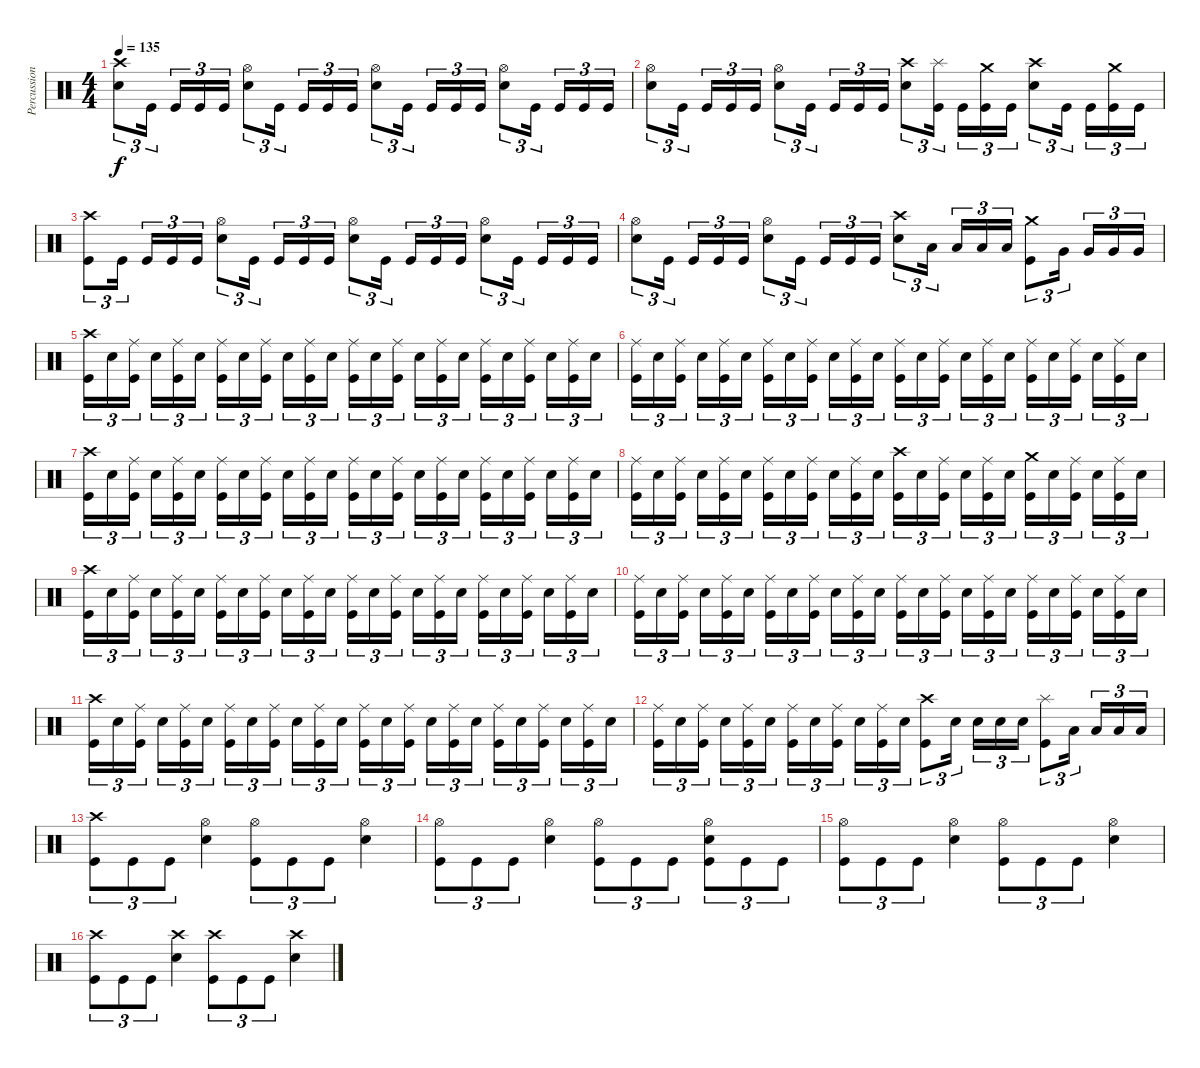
\track ("Percussions" "Percussion") {instrument percussion}
\staff {score}
\articulation defaults
\ts (4 4)
\tempo 135
\clef neutral
\ks c
("Crash high (hit)" "Electric Snare (hit)").8{tu (3 2) dy f} "Kick (hit)".16{tu (3 2) beam splitsecondary} "Kick (hit)".16{tu (3 2)} "Kick (hit)".16{tu (3 2)} "Kick (hit)".16{tu (3 2)} ("Hi-Hat (open)" "Electric Snare (hit)").8{tu (3 2)} "Kick (hit)".16{tu (3 2) beam splitsecondary} "Kick (hit)".16{tu (3 2)} "Kick (hit)".16{tu (3 2)} "Kick (hit)".16{tu (3 2)} ("Hi-Hat (open)" "Electric Snare (hit)").8{tu (3 2)} "Kick (hit)".16{tu (3 2) beam splitsecondary} "Kick (hit)".16{tu (3 2)} "Kick (hit)".16{tu (3 2)} "Kick (hit)".16{tu (3 2)} ("Hi-Hat (open)" "Electric Snare (hit)").8{tu (3 2)} "Kick (hit)".16{tu (3 2) beam splitsecondary} "Kick (hit)".16{tu (3 2)} "Kick (hit)".16{tu (3 2)} "Kick (hit)".16{tu (3 2)} |
("Hi-Hat (open)" "Electric Snare (hit)").8{tu (3 2)} "Kick (hit)".16{tu (3 2) beam splitsecondary} "Kick (hit)".16{tu (3 2)} "Kick (hit)".16{tu (3 2)} "Kick (hit)".16{tu (3 2)} ("Hi-Hat (open)" "Electric Snare (hit)").8{tu (3 2)} "Kick (hit)".16{tu (3 2) beam splitsecondary} "Kick (hit)".16{tu (3 2)} "Kick (hit)".16{tu (3 2)} "Kick (hit)".16{tu (3 2)} ("Crash high (hit)" "Electric Snare (hit)").8{tu (3 2)} ("Splash (hit)" "Kick (hit)").16{tu (3 2) beam splitsecondary} "Kick (hit)".16{tu (3 2)} ("Crash medium (hit)" "Kick (hit)").16{tu (3 2)} "Kick (hit)".16{tu (3 2)} ("Crash high (hit)" "Electric Snare (hit)").8{tu (3 2)} "Kick (hit)".16{tu (3 2) beam splitsecondary} "Kick (hit)".16{tu (3 2)} ("Crash medium (hit)" "Kick (hit)").16{tu (3 2)} "Kick (hit)".16{tu (3 2)} |
("Crash high (hit)" "Kick (hit)").8{tu (3 2)} "Kick (hit)".16{tu (3 2) beam splitsecondary} "Kick (hit)".16{tu (3 2)} "Kick (hit)".16{tu (3 2)} "Kick (hit)".16{tu (3 2)} ("Hi-Hat (open)" "Electric Snare (hit)").8{tu (3 2)} "Kick (hit)".16{tu (3 2) beam splitsecondary} "Kick (hit)".16{tu (3 2)} "Kick (hit)".16{tu (3 2)} "Kick (hit)".16{tu (3 2)} ("Hi-Hat (open)" "Electric Snare (hit)").8{tu (3 2)} "Kick (hit)".16{tu (3 2) beam splitsecondary} "Kick (hit)".16{tu (3 2)} "Kick (hit)".16{tu (3 2)} "Kick (hit)".16{tu (3 2)} ("Hi-Hat (open)" "Electric Snare (hit)").8{tu (3 2)} "Kick (hit)".16{tu (3 2) beam splitsecondary} "Kick (hit)".16{tu (3 2)} "Kick (hit)".16{tu (3 2)} "Kick (hit)".16{tu (3 2)} |
("Hi-Hat (open)" "Electric Snare (hit)").8{tu (3 2)} "Kick (hit)".16{tu (3 2) beam splitsecondary} "Kick (hit)".16{tu (3 2)} "Kick (hit)".16{tu (3 2)} "Kick (hit)".16{tu (3 2)} ("Hi-Hat (open)" "Electric Snare (hit)").8{tu (3 2)} "Kick (hit)".16{tu (3 2) beam splitsecondary} "Kick (hit)".16{tu (3 2)} "Kick (hit)".16{tu (3 2)} "Kick (hit)".16{tu (3 2)} ("Crash high (hit)" "Electric Snare (hit)").8{tu (3 2)} "Low Tom (hit)".16{tu (3 2) beam splitsecondary} "Low Tom (hit)".16{tu (3 2)} "Low Tom (hit)".16{tu (3 2)} "Low Tom (hit)".16{tu (3 2)} ("Crash medium (hit)" "Kick (hit)").8{tu (3 2)} "Very Low Tom (hit)".16{tu (3 2) beam splitsecondary} "Very Low Tom (hit)".16{tu (3 2)} "Very Low Tom (hit)".16{tu (3 2)} "Very Low Tom (hit)".16{tu (3 2)} |
("Crash high (hit)" "Kick (hit)").16{tu (3 2)} "Electric Snare (hit)".16{tu (3 2)} ("Ride (middle)" "Kick (hit)").16{tu (3 2) beam splitsecondary} "Electric Snare (hit)".16{tu (3 2)} ("Ride (middle)" "Kick (hit)").16{tu (3 2)} "Electric Snare (hit)".16{tu (3 2)} ("Ride (middle)" "Kick (hit)").16{tu (3 2)} "Electric Snare (hit)".16{tu (3 2)} ("Ride (middle)" "Kick (hit)").16{tu (3 2) beam splitsecondary} "Electric Snare (hit)".16{tu (3 2)} ("Ride (middle)" "Kick (hit)").16{tu (3 2)} "Electric Snare (hit)".16{tu (3 2)} ("Ride (middle)" "Kick (hit)").16{tu (3 2)} "Electric Snare (hit)".16{tu (3 2)} ("Ride (middle)" "Kick (hit)").16{tu (3 2) beam splitsecondary} "Electric Snare (hit)".16{tu (3 2)} ("Ride (middle)" "Kick (hit)").16{tu (3 2)} "Electric Snare (hit)".16{tu (3 2)} ("Ride (middle)" "Kick (hit)").16{tu (3 2)} "Electric Snare (hit)".16{tu (3 2)} ("Ride (middle)" "Kick (hit)").16{tu (3 2) beam splitsecondary} "Electric Snare (hit)".16{tu (3 2)} ("Ride (middle)" "Kick (hit)").16{tu (3 2)} "Electric Snare (hit)".16{tu (3 2)} |
("Ride (middle)" "Kick (hit)").16{tu (3 2)} "Electric Snare (hit)".16{tu (3 2)} ("Ride (middle)" "Kick (hit)").16{tu (3 2) beam splitsecondary} "Electric Snare (hit)".16{tu (3 2)} ("Ride (middle)" "Kick (hit)").16{tu (3 2)} "Electric Snare (hit)".16{tu (3 2)} ("Ride (middle)" "Kick (hit)").16{tu (3 2)} "Electric Snare (hit)".16{tu (3 2)} ("Ride (middle)" "Kick (hit)").16{tu (3 2) beam splitsecondary} "Electric Snare (hit)".16{tu (3 2)} ("Ride (middle)" "Kick (hit)").16{tu (3 2)} "Electric Snare (hit)".16{tu (3 2)} ("Ride (middle)" "Kick (hit)").16{tu (3 2)} "Electric Snare (hit)".16{tu (3 2)} ("Ride (middle)" "Kick (hit)").16{tu (3 2) beam splitsecondary} "Electric Snare (hit)".16{tu (3 2)} ("Ride (middle)" "Kick (hit)").16{tu (3 2)} "Electric Snare (hit)".16{tu (3 2)} ("Ride (middle)" "Kick (hit)").16{tu (3 2)} "Electric Snare (hit)".16{tu (3 2)} ("Ride (middle)" "Kick (hit)").16{tu (3 2) beam splitsecondary} "Electric Snare (hit)".16{tu (3 2)} ("Ride (middle)" "Kick (hit)").16{tu (3 2)} "Electric Snare (hit)".16{tu (3 2)} |
("Crash high (hit)" "Kick (hit)").16{tu (3 2)} "Electric Snare (hit)".16{tu (3 2)} ("Ride (middle)" "Kick (hit)").16{tu (3 2) beam splitsecondary} "Electric Snare (hit)".16{tu (3 2)} ("Ride (middle)" "Kick (hit)").16{tu (3 2)} "Electric Snare (hit)".16{tu (3 2)} ("Ride (middle)" "Kick (hit)").16{tu (3 2)} "Electric Snare (hit)".16{tu (3 2)} ("Ride (middle)" "Kick (hit)").16{tu (3 2) beam splitsecondary} "Electric Snare (hit)".16{tu (3 2)} ("Ride (middle)" "Kick (hit)").16{tu (3 2)} "Electric Snare (hit)".16{tu (3 2)} ("Ride (middle)" "Kick (hit)").16{tu (3 2)} "Electric Snare (hit)".16{tu (3 2)} ("Ride (middle)" "Kick (hit)").16{tu (3 2) beam splitsecondary} "Electric Snare (hit)".16{tu (3 2)} ("Ride (middle)" "Kick (hit)").16{tu (3 2)} "Electric Snare (hit)".16{tu (3 2)} ("Ride (middle)" "Kick (hit)").16{tu (3 2)} "Electric Snare (hit)".16{tu (3 2)} ("Ride (middle)" "Kick (hit)").16{tu (3 2) beam splitsecondary} "Electric Snare (hit)".16{tu (3 2)} ("Ride (middle)" "Kick (hit)").16{tu (3 2)} "Electric Snare (hit)".16{tu (3 2)} |
("Ride (middle)" "Kick (hit)").16{tu (3 2)} "Electric Snare (hit)".16{tu (3 2)} ("Ride (middle)" "Kick (hit)").16{tu (3 2) beam splitsecondary} "Electric Snare (hit)".16{tu (3 2)} ("Ride (middle)" "Kick (hit)").16{tu (3 2)} "Electric Snare (hit)".16{tu (3 2)} ("Ride (middle)" "Kick (hit)").16{tu (3 2)} "Electric Snare (hit)".16{tu (3 2)} ("Ride (middle)" "Kick (hit)").16{tu (3 2) beam splitsecondary} "Electric Snare (hit)".16{tu (3 2)} ("Ride (middle)" "Kick (hit)").16{tu (3 2)} "Electric Snare (hit)".16{tu (3 2)} ("Crash high (hit)" "Kick (hit)").16{tu (3 2)} "Electric Snare (hit)".16{tu (3 2)} ("Ride (middle)" "Kick (hit)").16{tu (3 2) beam splitsecondary} "Electric Snare (hit)".16{tu (3 2)} ("Ride (middle)" "Kick (hit)").16{tu (3 2)} "Electric Snare (hit)".16{tu (3 2)} ("Crash medium (hit)" "Kick (hit)").16{tu (3 2)} "Electric Snare (hit)".16{tu (3 2)} ("Ride (middle)" "Kick (hit)").16{tu (3 2) beam splitsecondary} "Electric Snare (hit)".16{tu (3 2)} ("Ride (middle)" "Kick (hit)").16{tu (3 2)} "Electric Snare (hit)".16{tu (3 2)} |
("Crash high (hit)" "Kick (hit)").16{tu (3 2)} "Electric Snare (hit)".16{tu (3 2)} ("Ride (middle)" "Kick (hit)").16{tu (3 2) beam splitsecondary} "Electric Snare (hit)".16{tu (3 2)} ("Ride (middle)" "Kick (hit)").16{tu (3 2)} "Electric Snare (hit)".16{tu (3 2)} ("Ride (middle)" "Kick (hit)").16{tu (3 2)} "Electric Snare (hit)".16{tu (3 2)} ("Ride (middle)" "Kick (hit)").16{tu (3 2) beam splitsecondary} "Electric Snare (hit)".16{tu (3 2)} ("Ride (middle)" "Kick (hit)").16{tu (3 2)} "Electric Snare (hit)".16{tu (3 2)} ("Ride (middle)" "Kick (hit)").16{tu (3 2)} "Electric Snare (hit)".16{tu (3 2)} ("Ride (middle)" "Kick (hit)").16{tu (3 2) beam splitsecondary} "Electric Snare (hit)".16{tu (3 2)} ("Ride (middle)" "Kick (hit)").16{tu (3 2)} "Electric Snare (hit)".16{tu (3 2)} ("Ride (middle)" "Kick (hit)").16{tu (3 2)} "Electric Snare (hit)".16{tu (3 2)} ("Ride (middle)" "Kick (hit)").16{tu (3 2) beam splitsecondary} "Electric Snare (hit)".16{tu (3 2)} ("Ride (middle)" "Kick (hit)").16{tu (3 2)} "Electric Snare (hit)".16{tu (3 2)} |
("Ride (middle)" "Kick (hit)").16{tu (3 2)} "Electric Snare (hit)".16{tu (3 2)} ("Ride (middle)" "Kick (hit)").16{tu (3 2) beam splitsecondary} "Electric Snare (hit)".16{tu (3 2)} ("Ride (middle)" "Kick (hit)").16{tu (3 2)} "Electric Snare (hit)".16{tu (3 2)} ("Ride (middle)" "Kick (hit)").16{tu (3 2)} "Electric Snare (hit)".16{tu (3 2)} ("Ride (middle)" "Kick (hit)").16{tu (3 2) beam splitsecondary} "Electric Snare (hit)".16{tu (3 2)} ("Ride (middle)" "Kick (hit)").16{tu (3 2)} "Electric Snare (hit)".16{tu (3 2)} ("Ride (middle)" "Kick (hit)").16{tu (3 2)} "Electric Snare (hit)".16{tu (3 2)} ("Ride (middle)" "Kick (hit)").16{tu (3 2) beam splitsecondary} "Electric Snare (hit)".16{tu (3 2)} ("Ride (middle)" "Kick (hit)").16{tu (3 2)} "Electric Snare (hit)".16{tu (3 2)} ("Ride (middle)" "Kick (hit)").16{tu (3 2)} "Electric Snare (hit)".16{tu (3 2)} ("Ride (middle)" "Kick (hit)").16{tu (3 2) beam splitsecondary} "Electric Snare (hit)".16{tu (3 2)} ("Ride (middle)" "Kick (hit)").16{tu (3 2)} "Electric Snare (hit)".16{tu (3 2)} |
("Crash high (hit)" "Kick (hit)").16{tu (3 2)} "Electric Snare (hit)".16{tu (3 2)} ("Ride (middle)" "Kick (hit)").16{tu (3 2) beam splitsecondary} "Electric Snare (hit)".16{tu (3 2)} ("Ride (middle)" "Kick (hit)").16{tu (3 2)} "Electric Snare (hit)".16{tu (3 2)} ("Ride (middle)" "Kick (hit)").16{tu (3 2)} "Electric Snare (hit)".16{tu (3 2)} ("Ride (middle)" "Kick (hit)").16{tu (3 2) beam splitsecondary} "Electric Snare (hit)".16{tu (3 2)} ("Ride (middle)" "Kick (hit)").16{tu (3 2)} "Electric Snare (hit)".16{tu (3 2)} ("Ride (middle)" "Kick (hit)").16{tu (3 2)} "Electric Snare (hit)".16{tu (3 2)} ("Ride (middle)" "Kick (hit)").16{tu (3 2) beam splitsecondary} "Electric Snare (hit)".16{tu (3 2)} ("Ride (middle)" "Kick (hit)").16{tu (3 2)} "Electric Snare (hit)".16{tu (3 2)} ("Ride (middle)" "Kick (hit)").16{tu (3 2)} "Electric Snare (hit)".16{tu (3 2)} ("Ride (middle)" "Kick (hit)").16{tu (3 2) beam splitsecondary} "Electric Snare (hit)".16{tu (3 2)} ("Ride (middle)" "Kick (hit)").16{tu (3 2)} "Electric Snare (hit)".16{tu (3 2)} |
("Ride (middle)" "Kick (hit)").16{tu (3 2)} "Electric Snare (hit)".16{tu (3 2)} ("Ride (middle)" "Kick (hit)").16{tu (3 2) beam splitsecondary} "Electric Snare (hit)".16{tu (3 2)} ("Ride (middle)" "Kick (hit)").16{tu (3 2)} "Electric Snare (hit)".16{tu (3 2)} ("Ride (middle)" "Kick (hit)").16{tu (3 2)} "Electric Snare (hit)".16{tu (3 2)} ("Ride (middle)" "Kick (hit)").16{tu (3 2) beam splitsecondary} "Electric Snare (hit)".16{tu (3 2)} ("Ride (middle)" "Kick (hit)").16{tu (3 2)} "Electric Snare (hit)".16{tu (3 2)} ("Crash high (hit)" "Kick (hit)").8{tu (3 2)} "Electric Snare (hit)".16{tu (3 2) beam splitsecondary} "Electric Snare (hit)".16{tu (3 2)} "Electric Snare (hit)".16{tu (3 2)} "Electric Snare (hit)".16{tu (3 2)} ("Splash (hit)" "Kick (hit)").8{tu (3 2)} "Low Tom (hit)".16{tu (3 2) beam splitsecondary} "Low Tom (hit)".16{tu (3 2)} "Low Tom (hit)".16{tu (3 2)} "Low Tom (hit)".16{tu (3 2)} |
("Crash high (hit)" "Kick (hit)").8{tu (3 2)} "Kick (hit)".8{tu (3 2)} "Kick (hit)".8{tu (3 2)} ("Hi-Hat (open)" "Electric Snare (hit)").4 ("Hi-Hat (open)" "Kick (hit)").8{tu (3 2)} "Kick (hit)".8{tu (3 2)} "Kick (hit)".8{tu (3 2)} ("Hi-Hat (open)" "Electric Snare (hit)").4 |
("Hi-Hat (open)" "Kick (hit)").8{tu (3 2)} "Kick (hit)".8{tu (3 2)} "Kick (hit)".8{tu (3 2)} ("Hi-Hat (open)" "Electric Snare (hit)").4 ("Hi-Hat (open)" "Kick (hit)").8{tu (3 2)} "Kick (hit)".8{tu (3 2)} "Kick (hit)".8{tu (3 2)} ("Hi-Hat (open)" "Electric Snare (hit)" "Kick (hit)").8{tu (3 2)} "Kick (hit)".8{tu (3 2)} "Kick (hit)".8{tu (3 2)} |
("Hi-Hat (open)" "Kick (hit)").8{tu (3 2)} "Kick (hit)".8{tu (3 2)} "Kick (hit)".8{tu (3 2)} ("Hi-Hat (open)" "Electric Snare (hit)").4 ("Hi-Hat (open)" "Kick (hit)").8{tu (3 2)} "Kick (hit)".8{tu (3 2)} "Kick (hit)".8{tu (3 2)} ("Hi-Hat (open)" "Electric Snare (hit)").4 |
("Crash high (hit)" "Kick (hit)").8{tu (3 2)} "Kick (hit)".8{tu (3 2)} "Kick (hit)".8{tu (3 2)} ("Crash high (hit)" "Electric Snare (hit)").4 ("Crash high (hit)" "Kick (hit)").8{tu (3 2)} "Kick (hit)".8{tu (3 2)} "Kick (hit)".8{tu (3 2)} ("Crash high (hit)" "Electric Snare (hit)").4
